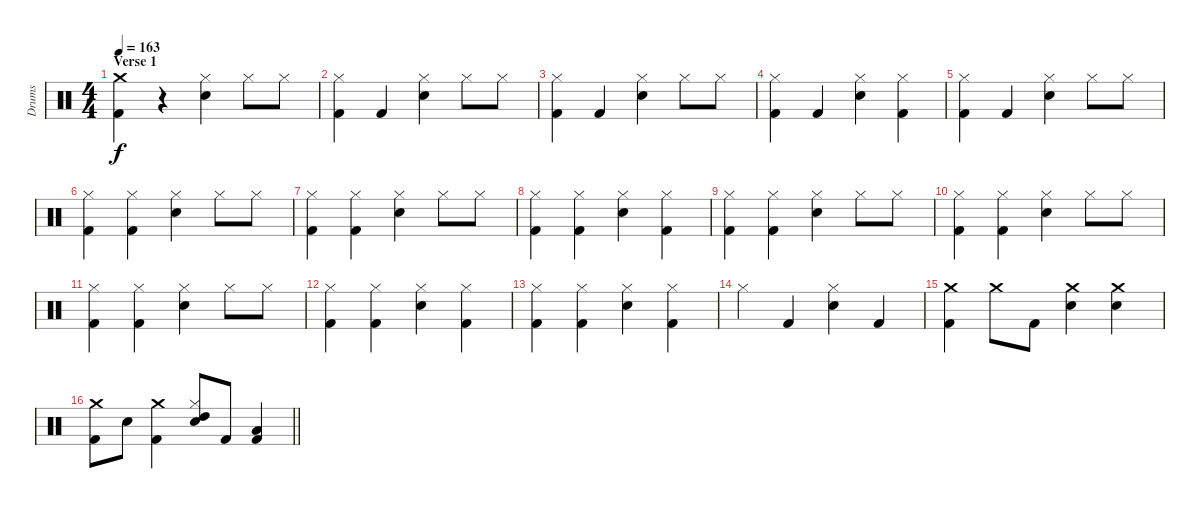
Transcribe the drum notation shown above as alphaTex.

\track ("Drums" "Drums") {instrument percussion}
\staff {score}
\articulation defaults
\ts (4 4)
\section ("" "Verse 1")
\tempo 163
\clef neutral
\ks c
("Crash medium (hit)" "Kick (hit) 2").4{dy f} r.4 ("Snare (hit) 2" "Hi-Hat (closed)").4 "Hi-Hat (closed)".8 "Hi-Hat (closed)".8 |
("Kick (hit) 2" "Hi-Hat (closed)").4 "Kick (hit) 2".4 ("Snare (hit) 2" "Hi-Hat (closed)").4 "Hi-Hat (closed)".8 "Hi-Hat (closed)".8 |
("Kick (hit) 2" "Hi-Hat (closed)").4 "Kick (hit) 2".4 ("Snare (hit) 2" "Hi-Hat (closed)").4 "Hi-Hat (closed)".8 "Hi-Hat (closed)".8 |
("Kick (hit) 2" "Hi-Hat (closed)").4 "Kick (hit) 2".4 ("Snare (hit) 2" "Hi-Hat (closed)").4 ("Kick (hit) 2" "Hi-Hat (closed)").4 |
("Kick (hit) 2" "Hi-Hat (closed)").4 "Kick (hit) 2".4 ("Snare (hit) 2" "Hi-Hat (closed)").4 "Hi-Hat (closed)".8 "Hi-Hat (closed)".8 |
("Kick (hit) 2" "Hi-Hat (closed)").4 ("Kick (hit) 2" "Hi-Hat (closed)").4 ("Snare (hit) 2" "Hi-Hat (closed)").4 "Hi-Hat (closed)".8 "Hi-Hat (closed)".8 |
("Kick (hit) 2" "Hi-Hat (closed)").4 ("Kick (hit) 2" "Hi-Hat (closed)").4 ("Snare (hit) 2" "Hi-Hat (closed)").4 "Hi-Hat (closed)".8 "Hi-Hat (closed)".8 |
("Kick (hit) 2" "Hi-Hat (closed)").4 ("Kick (hit) 2" "Hi-Hat (closed)").4 ("Snare (hit) 2" "Hi-Hat (closed)").4 ("Kick (hit) 2" "Hi-Hat (closed)").4 |
("Kick (hit) 2" "Hi-Hat (closed)").4 ("Kick (hit) 2" "Hi-Hat (closed)").4 ("Snare (hit) 2" "Hi-Hat (closed)").4 "Hi-Hat (closed)".8 "Hi-Hat (closed)".8 |
("Kick (hit) 2" "Hi-Hat (closed)").4 ("Kick (hit) 2" "Hi-Hat (closed)").4 ("Snare (hit) 2" "Hi-Hat (closed)").4 "Hi-Hat (closed)".8 "Hi-Hat (closed)".8 |
("Kick (hit) 2" "Hi-Hat (closed)").4 ("Kick (hit) 2" "Hi-Hat (closed)").4 ("Snare (hit) 2" "Hi-Hat (closed)").4 "Hi-Hat (closed)".8 "Hi-Hat (closed)".8 |
("Kick (hit) 2" "Hi-Hat (closed)").4 ("Kick (hit) 2" "Hi-Hat (closed)").4 ("Snare (hit) 2" "Hi-Hat (closed)").4 ("Kick (hit) 2" "Hi-Hat (closed)").4 |
("Kick (hit) 2" "Hi-Hat (closed)").4 ("Kick (hit) 2" "Hi-Hat (closed)").4 ("Snare (hit) 2" "Hi-Hat (closed)").4 ("Kick (hit) 2" "Hi-Hat (closed)").4 |
"Hi-Hat (closed)".4 "Kick (hit) 2".4 ("Snare (hit) 2" "Hi-Hat (closed)").4 "Kick (hit) 2".4 |
("Crash medium (hit)" "Kick (hit) 2").4 "Crash medium (hit)".8 "Kick (hit) 2".8 ("Crash medium (hit)" "Snare (hit) 2").4 ("Crash medium (hit)" "Snare (hit) 2").4 |
\barLineRight lightlight
("Crash medium (hit)" "Kick (hit) 2").8 "Snare (hit) 2".8 ("Crash medium (hit)" "Kick (hit) 2").4 ("Hi-Hat (closed)" "Snare (hit) 2" "High Tom (hit)").8 "Kick (hit) 2".8 ("Kick (hit) 2" "Low Tom (hit)").4
